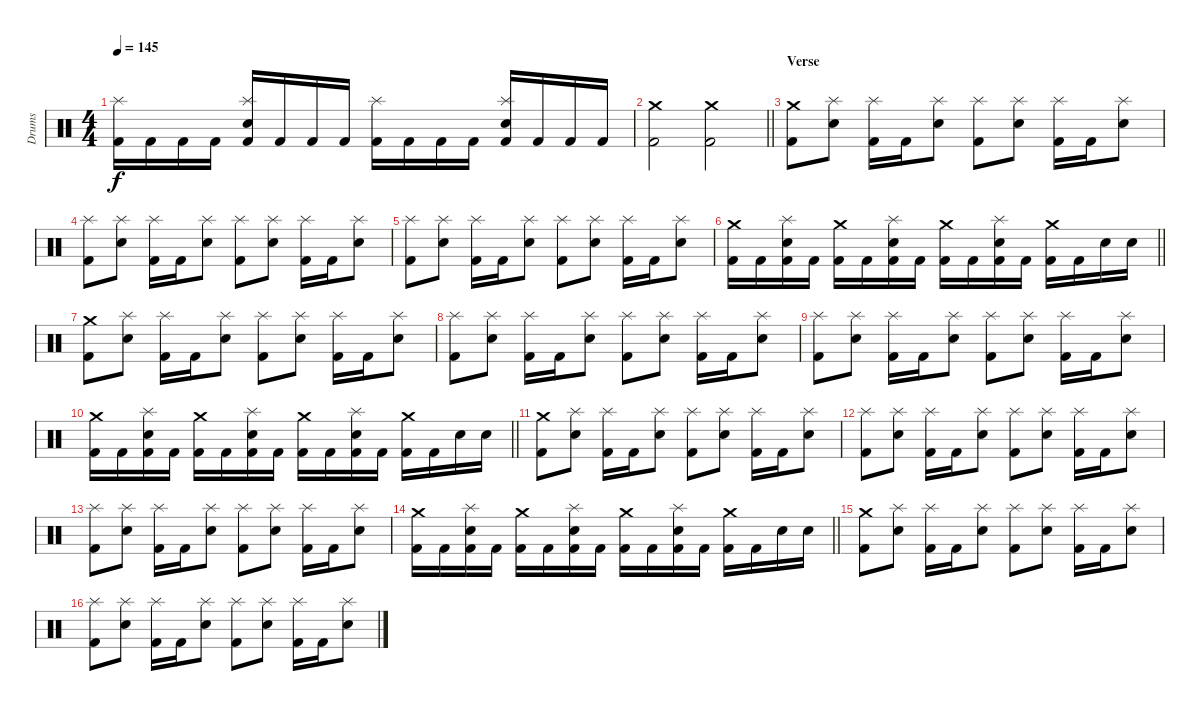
\track ("Drums" "Drums") {instrument percussion}
\staff {score}
\articulation defaults
\ts (4 4)
\tempo 145
\clef neutral
\ks c
("Kick (hit) 2" "Splash (hit)").16{dy f} "Kick (hit) 2".16 "Kick (hit) 2".16 "Kick (hit) 2".16 ("Kick (hit) 2" "Snare (hit) 2" "Splash (hit)").16 "Kick (hit) 2".16 "Kick (hit) 2".16 "Kick (hit) 2".16 ("Kick (hit) 2" "Splash (hit)").16 "Kick (hit) 2".16 "Kick (hit) 2".16 "Kick (hit) 2".16 ("Kick (hit) 2" "Snare (hit) 2" "Splash (hit)").16 "Kick (hit) 2".16 "Kick (hit) 2".16 "Kick (hit) 2".16 |
\barLineRight lightlight
("Kick (hit) 2" "Crash medium (hit)").2 ("Kick (hit) 2" "Crash medium (hit)").2 |
\section ("" "Verse")
("Kick (hit) 2" "Crash medium (hit)").8 ("Snare (hit) 2" "Splash (hit)").8 ("Kick (hit) 2" "Splash (hit)").16 "Kick (hit) 2".16 ("Snare (hit) 2" "Splash (hit)").8 ("Kick (hit) 2" "Splash (hit)").8 ("Snare (hit) 2" "Splash (hit)").8 ("Kick (hit) 2" "Splash (hit)").16 "Kick (hit) 2".16 ("Snare (hit) 2" "Splash (hit)").8 |
("Kick (hit) 2" "Splash (hit)").8 ("Snare (hit) 2" "Splash (hit)").8 ("Kick (hit) 2" "Splash (hit)").16 "Kick (hit) 2".16 ("Snare (hit) 2" "Splash (hit)").8 ("Kick (hit) 2" "Splash (hit)").8 ("Snare (hit) 2" "Splash (hit)").8 ("Kick (hit) 2" "Splash (hit)").16 "Kick (hit) 2".16 ("Snare (hit) 2" "Splash (hit)").8 |
("Kick (hit) 2" "Splash (hit)").8 ("Snare (hit) 2" "Splash (hit)").8 ("Kick (hit) 2" "Splash (hit)").16 "Kick (hit) 2".16 ("Snare (hit) 2" "Splash (hit)").8 ("Kick (hit) 2" "Splash (hit)").8 ("Snare (hit) 2" "Splash (hit)").8 ("Kick (hit) 2" "Splash (hit)").16 "Kick (hit) 2".16 ("Snare (hit) 2" "Splash (hit)").8 |
\barLineRight lightlight
("Kick (hit) 2" "Crash medium (hit)").16 "Kick (hit) 2".16 ("Kick (hit) 2" "Snare (hit) 2" "Splash (hit)").16 "Kick (hit) 2".16 ("Kick (hit) 2" "Crash medium (hit)").16 "Kick (hit) 2".16 ("Kick (hit) 2" "Snare (hit) 2" "Splash (hit)").16 "Kick (hit) 2".16 ("Kick (hit) 2" "Crash medium (hit)").16 "Kick (hit) 2".16 ("Kick (hit) 2" "Snare (hit) 2" "Splash (hit)").16 "Kick (hit) 2".16 ("Kick (hit) 2" "Crash medium (hit)").16 "Kick (hit) 2".16 "Snare (hit) 2".16 "Snare (hit) 2".16 |
\section ("" "")
("Kick (hit) 2" "Crash medium (hit)").8 ("Snare (hit) 2" "Splash (hit)").8 ("Kick (hit) 2" "Splash (hit)").16 "Kick (hit) 2".16 ("Snare (hit) 2" "Splash (hit)").8 ("Kick (hit) 2" "Splash (hit)").8 ("Snare (hit) 2" "Splash (hit)").8 ("Kick (hit) 2" "Splash (hit)").16 "Kick (hit) 2".16 ("Snare (hit) 2" "Splash (hit)").8 |
("Kick (hit) 2" "Splash (hit)").8 ("Snare (hit) 2" "Splash (hit)").8 ("Kick (hit) 2" "Splash (hit)").16 "Kick (hit) 2".16 ("Snare (hit) 2" "Splash (hit)").8 ("Kick (hit) 2" "Splash (hit)").8 ("Snare (hit) 2" "Splash (hit)").8 ("Kick (hit) 2" "Splash (hit)").16 "Kick (hit) 2".16 ("Snare (hit) 2" "Splash (hit)").8 |
("Kick (hit) 2" "Splash (hit)").8 ("Snare (hit) 2" "Splash (hit)").8 ("Kick (hit) 2" "Splash (hit)").16 "Kick (hit) 2".16 ("Snare (hit) 2" "Splash (hit)").8 ("Kick (hit) 2" "Splash (hit)").8 ("Snare (hit) 2" "Splash (hit)").8 ("Kick (hit) 2" "Splash (hit)").16 "Kick (hit) 2".16 ("Snare (hit) 2" "Splash (hit)").8 |
\barLineRight lightlight
("Kick (hit) 2" "Crash medium (hit)").16 "Kick (hit) 2".16 ("Kick (hit) 2" "Snare (hit) 2" "Splash (hit)").16 "Kick (hit) 2".16 ("Kick (hit) 2" "Crash medium (hit)").16 "Kick (hit) 2".16 ("Kick (hit) 2" "Snare (hit) 2" "Splash (hit)").16 "Kick (hit) 2".16 ("Kick (hit) 2" "Crash medium (hit)").16 "Kick (hit) 2".16 ("Kick (hit) 2" "Snare (hit) 2" "Splash (hit)").16 "Kick (hit) 2".16 ("Kick (hit) 2" "Crash medium (hit)").16 "Kick (hit) 2".16 "Snare (hit) 2".16 "Snare (hit) 2".16 |
\section ("" "")
("Kick (hit) 2" "Crash medium (hit)").8 ("Snare (hit) 2" "Splash (hit)").8 ("Kick (hit) 2" "Splash (hit)").16 "Kick (hit) 2".16 ("Snare (hit) 2" "Splash (hit)").8 ("Kick (hit) 2" "Splash (hit)").8 ("Snare (hit) 2" "Splash (hit)").8 ("Kick (hit) 2" "Splash (hit)").16 "Kick (hit) 2".16 ("Snare (hit) 2" "Splash (hit)").8 |
("Kick (hit) 2" "Splash (hit)").8 ("Snare (hit) 2" "Splash (hit)").8 ("Kick (hit) 2" "Splash (hit)").16 "Kick (hit) 2".16 ("Snare (hit) 2" "Splash (hit)").8 ("Kick (hit) 2" "Splash (hit)").8 ("Snare (hit) 2" "Splash (hit)").8 ("Kick (hit) 2" "Splash (hit)").16 "Kick (hit) 2".16 ("Snare (hit) 2" "Splash (hit)").8 |
("Kick (hit) 2" "Splash (hit)").8 ("Snare (hit) 2" "Splash (hit)").8 ("Kick (hit) 2" "Splash (hit)").16 "Kick (hit) 2".16 ("Snare (hit) 2" "Splash (hit)").8 ("Kick (hit) 2" "Splash (hit)").8 ("Snare (hit) 2" "Splash (hit)").8 ("Kick (hit) 2" "Splash (hit)").16 "Kick (hit) 2".16 ("Snare (hit) 2" "Splash (hit)").8 |
\barLineRight lightlight
("Kick (hit) 2" "Crash medium (hit)").16 "Kick (hit) 2".16 ("Kick (hit) 2" "Snare (hit) 2" "Splash (hit)").16 "Kick (hit) 2".16 ("Kick (hit) 2" "Crash medium (hit)").16 "Kick (hit) 2".16 ("Kick (hit) 2" "Snare (hit) 2" "Splash (hit)").16 "Kick (hit) 2".16 ("Kick (hit) 2" "Crash medium (hit)").16 "Kick (hit) 2".16 ("Kick (hit) 2" "Snare (hit) 2" "Splash (hit)").16 "Kick (hit) 2".16 ("Kick (hit) 2" "Crash medium (hit)").16 "Kick (hit) 2".16 "Snare (hit) 2".16 "Snare (hit) 2".16 |
\section ("" "")
("Kick (hit) 2" "Crash medium (hit)").8 ("Snare (hit) 2" "Splash (hit)").8 ("Kick (hit) 2" "Splash (hit)").16 "Kick (hit) 2".16 ("Snare (hit) 2" "Splash (hit)").8 ("Kick (hit) 2" "Splash (hit)").8 ("Snare (hit) 2" "Splash (hit)").8 ("Kick (hit) 2" "Splash (hit)").16 "Kick (hit) 2".16 ("Snare (hit) 2" "Splash (hit)").8 |
("Kick (hit) 2" "Splash (hit)").8 ("Snare (hit) 2" "Splash (hit)").8 ("Kick (hit) 2" "Splash (hit)").16 "Kick (hit) 2".16 ("Snare (hit) 2" "Splash (hit)").8 ("Kick (hit) 2" "Splash (hit)").8 ("Snare (hit) 2" "Splash (hit)").8 ("Kick (hit) 2" "Splash (hit)").16 "Kick (hit) 2".16 ("Snare (hit) 2" "Splash (hit)").8
